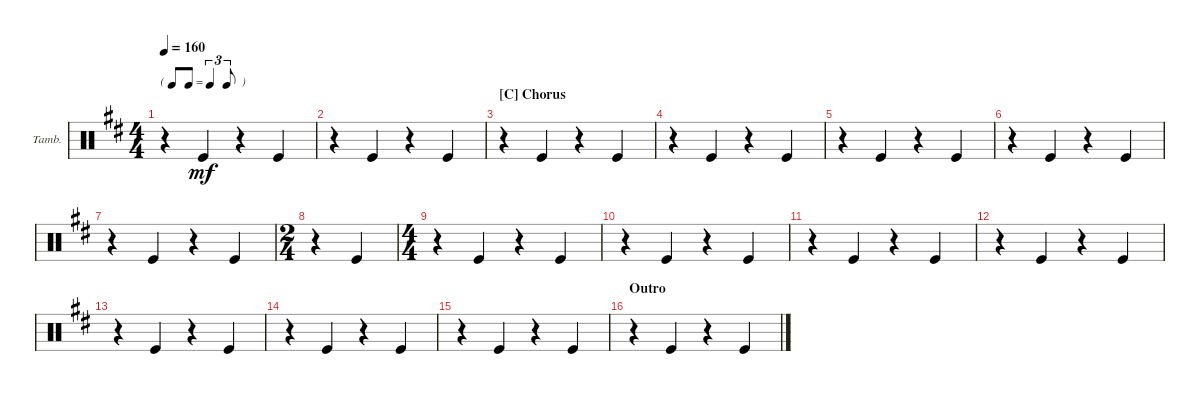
\defaultSystemsLayout 4
\bracketExtendMode groupsimilarinstruments
\firstSystemTrackNameOrientation horizontal
\otherSystemsTrackNameOrientation horizontal
\track ("Tambourine" "Tamb.") {instrument percussion}
\staff {score}
\articulation defaults
\ts (4 4)
\tf triplet8th
\tempo 160
\clef neutral
\ks bminor
r.4{dy mf} "Kick (hit)".4 r.4 "Kick (hit)".4 |
r.4 "Kick (hit)".4 r.4 "Kick (hit)".4 |
\section ("C" "Chorus")
r.4 "Kick (hit)".4 r.4 "Kick (hit)".4 |
r.4 "Kick (hit)".4 r.4 "Kick (hit)".4 |
r.4 "Kick (hit)".4 r.4 "Kick (hit)".4 |
r.4 "Kick (hit)".4 r.4 "Kick (hit)".4 |
r.4 "Kick (hit)".4 r.4 "Kick (hit)".4 |
\ts (2 4)
r.4 "Kick (hit)".4 |
\ts (4 4)
r.4 "Kick (hit)".4 r.4 "Kick (hit)".4 |
r.4 "Kick (hit)".4 r.4 "Kick (hit)".4 |
r.4 "Kick (hit)".4 r.4 "Kick (hit)".4 |
r.4 "Kick (hit)".4 r.4 "Kick (hit)".4 |
r.4 "Kick (hit)".4 r.4 "Kick (hit)".4 |
r.4 "Kick (hit)".4 r.4 "Kick (hit)".4 |
r.4 "Kick (hit)".4 r.4 "Kick (hit)".4 |
\section ("" "Outro")
r.4 "Kick (hit)".4 r.4 "Kick (hit)".4
